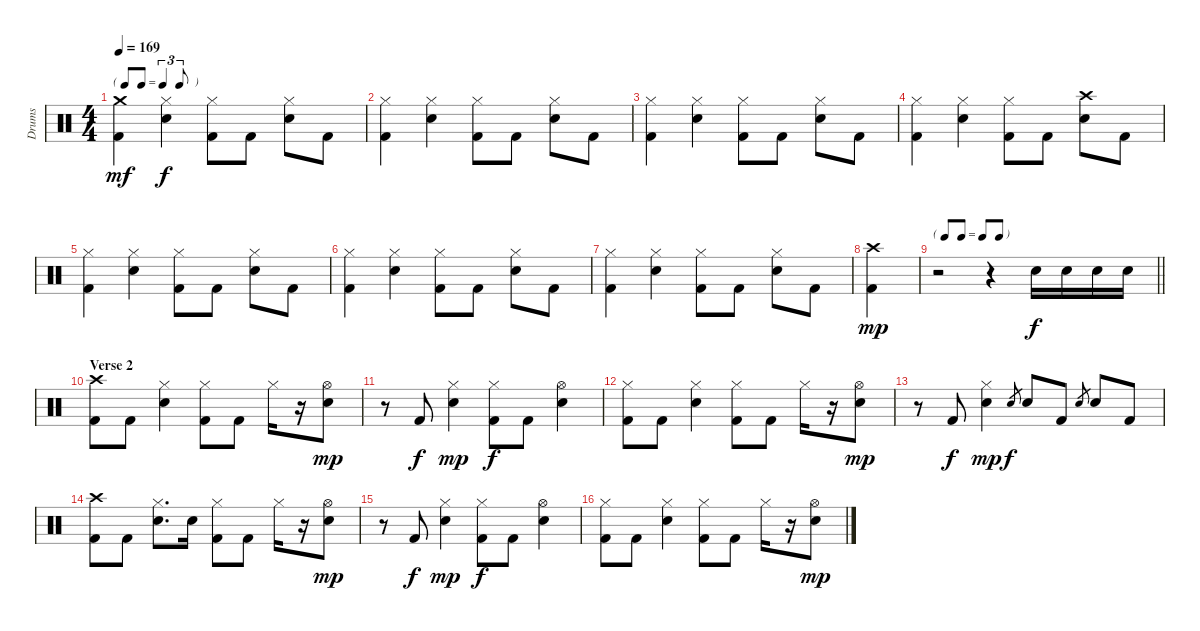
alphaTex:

\track ("Drums" "Drums") {instrument percussion}
\staff {score}
\articulation defaults
\ts (4 4)
\tf triplet8th
\tempo 169
\clef neutral
\ks c
("Crash medium (hit)" "Kick (hit) 2").4{dy mf} ("Hi-Hat (closed)" "Snare (hit) 2").4{dy f} ("Hi-Hat (closed)" "Kick (hit) 2").8 "Kick (hit) 2".8 ("Hi-Hat (closed)" "Snare (hit) 2").8 "Kick (hit) 2".8 |
("Hi-Hat (closed)" "Kick (hit) 2").4 ("Hi-Hat (closed)" "Snare (hit) 2").4 ("Hi-Hat (closed)" "Kick (hit) 2").8 "Kick (hit) 2".8 ("Hi-Hat (closed)" "Snare (hit) 2").8 "Kick (hit) 2".8 |
("Hi-Hat (closed)" "Kick (hit) 2").4 ("Hi-Hat (closed)" "Snare (hit) 2").4 ("Hi-Hat (closed)" "Kick (hit) 2").8 "Kick (hit) 2".8 ("Hi-Hat (closed)" "Snare (hit) 2").8 "Kick (hit) 2".8 |
("Hi-Hat (closed)" "Kick (hit) 2").4 ("Hi-Hat (closed)" "Snare (hit) 2").4 ("Hi-Hat (closed)" "Kick (hit) 2").8 "Kick (hit) 2".8 ("Crash high (hit)" "Snare (hit) 2").8 "Kick (hit) 2".8 |
("Hi-Hat (closed)" "Kick (hit) 2").4 ("Hi-Hat (closed)" "Snare (hit) 2").4 ("Hi-Hat (closed)" "Kick (hit) 2").8 "Kick (hit) 2".8 ("Hi-Hat (closed)" "Snare (hit) 2").8 "Kick (hit) 2".8 |
("Hi-Hat (closed)" "Kick (hit) 2").4 ("Hi-Hat (closed)" "Snare (hit) 2").4 ("Hi-Hat (closed)" "Kick (hit) 2").8 "Kick (hit) 2".8 ("Hi-Hat (closed)" "Snare (hit) 2").8 "Kick (hit) 2".8 |
("Hi-Hat (closed)" "Kick (hit) 2").4 ("Hi-Hat (closed)" "Snare (hit) 2").4 ("Hi-Hat (closed)" "Kick (hit) 2").8 "Kick (hit) 2".8 ("Hi-Hat (closed)" "Snare (hit) 2").8 "Kick (hit) 2".8 |
("Crash high (hit)" "Kick (hit) 2").4{dy mp} |
\tf none
\barLineRight lightlight
r.2 r.4 "Snare (hit) 2".16{dy f} "Snare (hit) 2".16 "Snare (hit) 2".16 "Snare (hit) 2".16 |
\section ("" "Verse 2")
("Crash high (hit)" "Kick (hit) 2").8 "Kick (hit) 2".8 ("Hi-Hat (closed)" "Snare (hit) 2").4 ("Hi-Hat (closed)" "Kick (hit) 2").8 "Kick (hit) 2".8 "Hi-Hat (closed)".16 r.16 ("Hi-Hat (open)" "Snare (hit) 2").8{dy mp} |
r.8 "Kick (hit) 2".8{dy f} ("Hi-Hat (closed)" "Snare (hit) 2").4{dy mp} ("Hi-Hat (closed)" "Kick (hit) 2").8{dy f} "Kick (hit) 2".8 ("Hi-Hat (open)" "Snare (hit) 2").4 |
("Hi-Hat (closed)" "Kick (hit) 2").8 "Kick (hit) 2".8 ("Hi-Hat (closed)" "Snare (hit) 2").4 ("Hi-Hat (closed)" "Kick (hit) 2").8 "Kick (hit) 2".8 "Hi-Hat (closed)".16 r.16 ("Hi-Hat (open)" "Snare (hit) 2").8{dy mp} |
r.8 "Kick (hit) 2".8{dy f} ("Hi-Hat (closed)" "Snare (hit) 2").4{dy mp} "Snare (hit) 2".8{gr dy f} "Snare (hit) 2".8 "Kick (hit) 2".8 "Snare (hit) 2".8{gr} "Snare (hit) 2".8 "Kick (hit) 2".8 |
("Crash high (hit)" "Kick (hit) 2").8 "Kick (hit) 2".8 ("Hi-Hat (closed)" "Snare (hit) 2").8{d} "Snare (hit) 2".16 ("Hi-Hat (closed)" "Kick (hit) 2").8 "Kick (hit) 2".8 "Hi-Hat (closed)".16 r.16 ("Hi-Hat (open)" "Snare (hit) 2").8{dy mp} |
r.8 "Kick (hit) 2".8{dy f} ("Hi-Hat (closed)" "Snare (hit) 2").4{dy mp} ("Hi-Hat (closed)" "Kick (hit) 2").8{dy f} "Kick (hit) 2".8 ("Hi-Hat (open)" "Snare (hit) 2").4 |
("Hi-Hat (closed)" "Kick (hit) 2").8 "Kick (hit) 2".8 ("Hi-Hat (closed)" "Snare (hit) 2").4 ("Hi-Hat (closed)" "Kick (hit) 2").8 "Kick (hit) 2".8 "Hi-Hat (closed)".16 r.16 ("Hi-Hat (open)" "Snare (hit) 2").8{dy mp}
